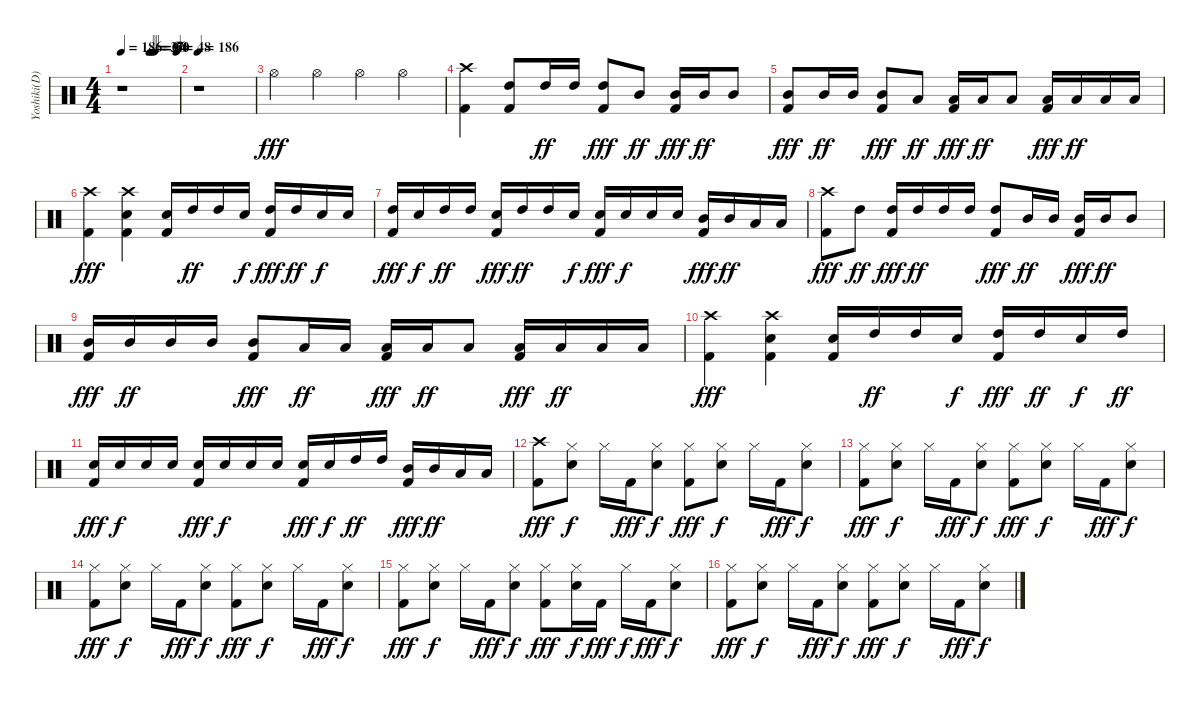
\track ("Yoshiki(D)" "Yoshiki(D)") {instrument percussion}
\staff {score}
\articulation defaults
\ts (4 4)
\tempo 186
\tempo (37 0.5)
\tempo (66 0.53125)
\tempo (64 0.5625)
\tempo (60 0.59375)
\tempo (48 0.96875)
\clef neutral
\ks c
r.1{dy fff} |
\tempo 186
r.1 |
"Hi-Hat (open)".4 "Hi-Hat (open)".4 "Hi-Hat (open)".4 "Hi-Hat (open)".4 |
("Crash high (hit)" "Kick (hit) 2").4 ("High Tom (hit)" "Kick (hit) 2").8 "High Tom (hit)".16{dy ff} "High Tom (hit)".16 ("High Tom (hit)" "Kick (hit) 2").8{dy fff} "Mid Tom (hit)".8{dy ff} ("Mid Tom (hit)" "Kick (hit) 2").16{dy fff} "Mid Tom (hit)".16{dy ff} "Mid Tom (hit)".8 |
("Mid Tom (hit)" "Kick (hit) 2").8{dy fff} "Mid Tom (hit)".16{dy ff} "Mid Tom (hit)".16 ("Mid Tom (hit)" "Kick (hit) 2").8{dy fff} "Low Tom (hit)".8{dy ff} ("Low Tom (hit)" "Kick (hit) 2").16{dy fff} "Low Tom (hit)".16{dy ff} "Low Tom (hit)".8 ("Low Tom (hit)" "Kick (hit) 2").16{dy fff} "Low Tom (hit)".16{dy ff} "Low Tom (hit)".16 "Low Tom (hit)".16 |
("Crash high (hit)" "Kick (hit) 2").4{dy fff} ("Crash high (hit)" "Electric Snare (hit)" "Kick (hit) 2").4 ("Electric Snare (hit)" "Kick (hit) 2").16 "High Tom (hit)".16{dy ff} "High Tom (hit)".16 "Electric Snare (hit)".16{dy f} ("High Tom (hit)" "Kick (hit) 2").16{dy fff} "High Tom (hit)".16{dy ff} "Electric Snare (hit)".16{dy f} "Electric Snare (hit)".16 |
("High Tom (hit)" "Kick (hit) 2").16{dy fff} "Electric Snare (hit)".16{dy f} "High Tom (hit)".16{dy ff} "High Tom (hit)".16 ("Electric Snare (hit)" "Kick (hit) 2").16{dy fff} "High Tom (hit)".16{dy ff} "High Tom (hit)".16 "Electric Snare (hit)".16{dy f} ("Electric Snare (hit)" "Kick (hit) 2").16{dy fff} "Electric Snare (hit)".16{dy f} "Electric Snare (hit)".16 "Electric Snare (hit)".16 ("Mid Tom (hit)" "Kick (hit) 2").16{dy fff} "Mid Tom (hit)".16{dy ff} "Low Floor Tom (hit)".16 "Low Floor Tom (hit)".16 |
("Crash high (hit)" "Kick (hit) 2").8{dy fff} "High Tom (hit)".8{dy ff} ("High Tom (hit)" "Kick (hit) 2").16{dy fff} "High Tom (hit)".16{dy ff} "High Tom (hit)".16 "High Tom (hit)".16 ("High Tom (hit)" "Kick (hit) 2").8{dy fff} "Mid Tom (hit)".16{dy ff} "Mid Tom (hit)".16 ("Mid Tom (hit)" "Kick (hit) 2").16{dy fff} "Mid Tom (hit)".16{dy ff} "Mid Tom (hit)".8 |
("Mid Tom (hit)" "Kick (hit) 2").16{dy fff} "Mid Tom (hit)".16{dy ff} "Mid Tom (hit)".16 "Mid Tom (hit)".16 ("Mid Tom (hit)" "Kick (hit) 2").8{dy fff} "Low Floor Tom (hit)".16{dy ff} "Low Floor Tom (hit)".16 ("Low Floor Tom (hit)" "Kick (hit) 2").16{dy fff} "Low Floor Tom (hit)".16{dy ff} "Low Floor Tom (hit)".8 ("Low Floor Tom (hit)" "Kick (hit) 2").16{dy fff} "Low Floor Tom (hit)".16{dy ff} "Low Floor Tom (hit)".16 "Low Floor Tom (hit)".16 |
("Crash high (hit)" "Kick (hit) 2").4{dy fff} ("Crash high (hit)" "Electric Snare (hit)" "Kick (hit) 2").4 ("Electric Snare (hit)" "Kick (hit) 2").16 "High Tom (hit)".16{dy ff} "High Tom (hit)".16 "Electric Snare (hit)".16{dy f} ("High Tom (hit)" "Kick (hit) 2").16{dy fff} "High Tom (hit)".16{dy ff} "Electric Snare (hit)".16{dy f} "High Tom (hit)".16{dy ff} |
("Electric Snare (hit)" "Kick (hit) 2").16{dy fff} "Electric Snare (hit)".16{dy f} "Electric Snare (hit)".16 "Electric Snare (hit)".16 ("Electric Snare (hit)" "Kick (hit) 2").16{dy fff} "Electric Snare (hit)".16{dy f} "Electric Snare (hit)".16 "Electric Snare (hit)".16 ("Electric Snare (hit)" "Kick (hit) 2").16{dy fff} "Electric Snare (hit)".16{dy f} "High Tom (hit)".16{dy ff} "High Tom (hit)".16 ("Mid Tom (hit)" "Kick (hit) 2").16{dy fff} "Mid Tom (hit)".16{dy ff} "Low Floor Tom (hit)".16 "Low Floor Tom (hit)".16 |
("Crash high (hit)" "Kick (hit) 2").8{dy fff} ("Hi-Hat (closed)" "Electric Snare (hit)").8{dy f} "Hi-Hat (closed)".16 "Kick (hit) 2".16{dy fff} ("Hi-Hat (closed)" "Electric Snare (hit)").8{dy f} ("Hi-Hat (closed)" "Kick (hit) 2").8{dy fff} ("Hi-Hat (closed)" "Electric Snare (hit)").8{dy f} "Hi-Hat (closed)".16 "Kick (hit) 2".16{dy fff} ("Hi-Hat (closed)" "Electric Snare (hit)").8{dy f} |
("Hi-Hat (closed)" "Kick (hit) 2").8{dy fff} ("Hi-Hat (closed)" "Electric Snare (hit)").8{dy f} "Hi-Hat (closed)".16 "Kick (hit) 2".16{dy fff} ("Hi-Hat (closed)" "Electric Snare (hit)").8{dy f} ("Hi-Hat (closed)" "Kick (hit) 2").8{dy fff} ("Hi-Hat (closed)" "Electric Snare (hit)").8{dy f} "Hi-Hat (closed)".16 "Kick (hit) 2".16{dy fff} ("Hi-Hat (closed)" "Electric Snare (hit)").8{dy f} |
("Hi-Hat (closed)" "Kick (hit) 2").8{dy fff} ("Hi-Hat (closed)" "Electric Snare (hit)").8{dy f} "Hi-Hat (closed)".16 "Kick (hit) 2".16{dy fff} ("Hi-Hat (closed)" "Electric Snare (hit)").8{dy f} ("Hi-Hat (closed)" "Kick (hit) 2").8{dy fff} ("Hi-Hat (closed)" "Electric Snare (hit)").8{dy f} "Hi-Hat (closed)".16 "Kick (hit) 2".16{dy fff} ("Hi-Hat (closed)" "Electric Snare (hit)").8{dy f} |
("Hi-Hat (closed)" "Kick (hit) 2").8{dy fff} ("Hi-Hat (closed)" "Electric Snare (hit)").8{dy f} "Hi-Hat (closed)".16 "Kick (hit) 2".16{dy fff} ("Hi-Hat (closed)" "Electric Snare (hit)").8{dy f} ("Hi-Hat (closed)" "Kick (hit) 2").8{dy fff} ("Hi-Hat (closed)" "Electric Snare (hit)").16{dy f} "Kick (hit) 2".16{dy fff} "Hi-Hat (closed)".16{dy f} "Kick (hit) 2".16{dy fff} ("Hi-Hat (closed)" "Electric Snare (hit)").8{dy f} |
("Hi-Hat (closed)" "Kick (hit) 2").8{dy fff} ("Hi-Hat (closed)" "Electric Snare (hit)").8{dy f} "Hi-Hat (closed)".16 "Kick (hit) 2".16{dy fff} ("Hi-Hat (closed)" "Electric Snare (hit)").8{dy f} ("Hi-Hat (closed)" "Kick (hit) 2").8{dy fff} ("Hi-Hat (closed)" "Electric Snare (hit)").8{dy f} "Hi-Hat (closed)".16 "Kick (hit) 2".16{dy fff} ("Hi-Hat (closed)" "Electric Snare (hit)").8{dy f}
